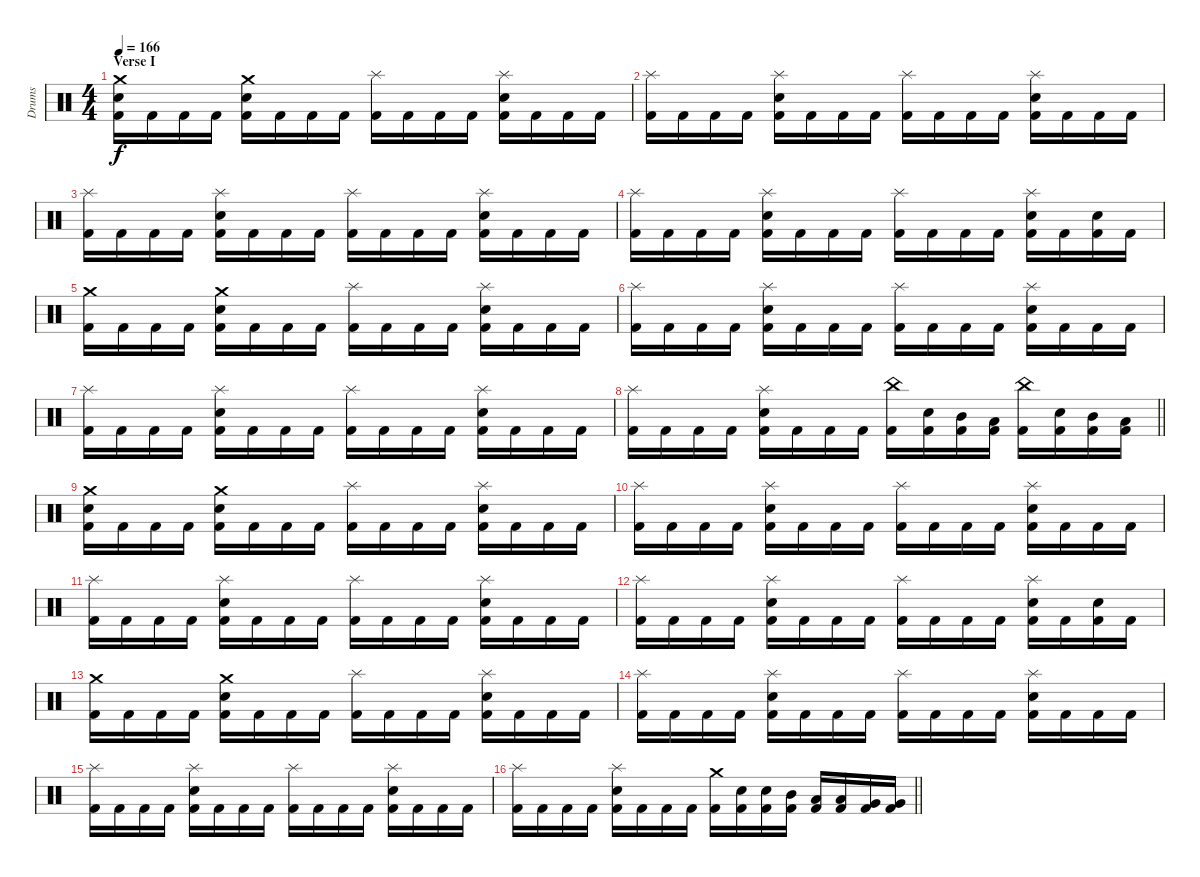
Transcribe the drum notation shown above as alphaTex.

\track ("Drums" "Drums") {instrument percussion}
\staff {score}
\articulation defaults
\ts (4 4)
\section ("" "Verse I")
\tempo 166
\clef neutral
\ks c
("Kick (hit) 2" "Snare (hit) 2" "Crash medium (hit)").16{dy f} "Kick (hit) 2".16 "Kick (hit) 2".16 "Kick (hit) 2".16 ("Kick (hit) 2" "Snare (hit) 2" "Crash medium (hit)").16 "Kick (hit) 2".16 "Kick (hit) 2".16 "Kick (hit) 2".16 ("Kick (hit) 2" "Splash (hit)").16 "Kick (hit) 2".16 "Kick (hit) 2".16 "Kick (hit) 2".16 ("Kick (hit) 2" "Snare (hit) 2" "Splash (hit)").16 "Kick (hit) 2".16 "Kick (hit) 2".16 "Kick (hit) 2".16 |
("Kick (hit) 2" "Splash (hit)").16 "Kick (hit) 2".16 "Kick (hit) 2".16 "Kick (hit) 2".16 ("Kick (hit) 2" "Snare (hit) 2" "Splash (hit)").16 "Kick (hit) 2".16 "Kick (hit) 2".16 "Kick (hit) 2".16 ("Kick (hit) 2" "Splash (hit)").16 "Kick (hit) 2".16 "Kick (hit) 2".16 "Kick (hit) 2".16 ("Kick (hit) 2" "Snare (hit) 2" "Splash (hit)").16 "Kick (hit) 2".16 "Kick (hit) 2".16 "Kick (hit) 2".16 |
("Kick (hit) 2" "Splash (hit)").16 "Kick (hit) 2".16 "Kick (hit) 2".16 "Kick (hit) 2".16 ("Kick (hit) 2" "Snare (hit) 2" "Splash (hit)").16 "Kick (hit) 2".16 "Kick (hit) 2".16 "Kick (hit) 2".16 ("Kick (hit) 2" "Splash (hit)").16 "Kick (hit) 2".16 "Kick (hit) 2".16 "Kick (hit) 2".16 ("Kick (hit) 2" "Snare (hit) 2" "Splash (hit)").16 "Kick (hit) 2".16 "Kick (hit) 2".16 "Kick (hit) 2".16 |
("Kick (hit) 2" "Splash (hit)").16 "Kick (hit) 2".16 "Kick (hit) 2".16 "Kick (hit) 2".16 ("Kick (hit) 2" "Snare (hit) 2" "Splash (hit)").16 "Kick (hit) 2".16 "Kick (hit) 2".16 "Kick (hit) 2".16 ("Kick (hit) 2" "Splash (hit)").16 "Kick (hit) 2".16 "Kick (hit) 2".16 "Kick (hit) 2".16 ("Kick (hit) 2" "Snare (hit) 2" "Splash (hit)").16 "Kick (hit) 2".16 ("Kick (hit) 2" "Snare (hit) 2").16 "Kick (hit) 2".16 |
("Kick (hit) 2" "Crash medium (hit)").16 "Kick (hit) 2".16 "Kick (hit) 2".16 "Kick (hit) 2".16 ("Kick (hit) 2" "Snare (hit) 2" "Crash medium (hit)").16 "Kick (hit) 2".16 "Kick (hit) 2".16 "Kick (hit) 2".16 ("Kick (hit) 2" "Splash (hit)").16 "Kick (hit) 2".16 "Kick (hit) 2".16 "Kick (hit) 2".16 ("Kick (hit) 2" "Snare (hit) 2" "Splash (hit)").16 "Kick (hit) 2".16 "Kick (hit) 2".16 "Kick (hit) 2".16 |
("Kick (hit) 2" "Splash (hit)").16 "Kick (hit) 2".16 "Kick (hit) 2".16 "Kick (hit) 2".16 ("Kick (hit) 2" "Snare (hit) 2" "Splash (hit)").16 "Kick (hit) 2".16 "Kick (hit) 2".16 "Kick (hit) 2".16 ("Kick (hit) 2" "Splash (hit)").16 "Kick (hit) 2".16 "Kick (hit) 2".16 "Kick (hit) 2".16 ("Kick (hit) 2" "Snare (hit) 2" "Splash (hit)").16 "Kick (hit) 2".16 "Kick (hit) 2".16 "Kick (hit) 2".16 |
("Kick (hit) 2" "Splash (hit)").16 "Kick (hit) 2".16 "Kick (hit) 2".16 "Kick (hit) 2".16 ("Kick (hit) 2" "Snare (hit) 2" "Splash (hit)").16 "Kick (hit) 2".16 "Kick (hit) 2".16 "Kick (hit) 2".16 ("Kick (hit) 2" "Splash (hit)").16 "Kick (hit) 2".16 "Kick (hit) 2".16 "Kick (hit) 2".16 ("Kick (hit) 2" "Snare (hit) 2" "Splash (hit)").16 "Kick (hit) 2".16 "Kick (hit) 2".16 "Kick (hit) 2".16 |
\barLineRight lightlight
("Kick (hit) 2" "Splash (hit)").16 "Kick (hit) 2".16 "Kick (hit) 2".16 "Kick (hit) 2".16 ("Kick (hit) 2" "Snare (hit) 2" "Splash (hit)").16 "Kick (hit) 2".16 "Kick (hit) 2".16 "Kick (hit) 2".16 ("Kick (hit) 2" "China (hit)").16 ("Kick (hit) 2" "Snare (hit) 2").16 ("Kick (hit) 2" "Mid Tom (hit)").16 ("Kick (hit) 2" "Low Tom (hit)").16 ("Kick (hit) 2" "China (hit)").16 ("Kick (hit) 2" "Snare (hit) 2").16 ("Kick (hit) 2" "Mid Tom (hit)").16 ("Kick (hit) 2" "Low Tom (hit)").16 |
\section ("" "")
("Kick (hit) 2" "Snare (hit) 2" "Crash medium (hit)").16 "Kick (hit) 2".16 "Kick (hit) 2".16 "Kick (hit) 2".16 ("Kick (hit) 2" "Snare (hit) 2" "Crash medium (hit)").16 "Kick (hit) 2".16 "Kick (hit) 2".16 "Kick (hit) 2".16 ("Kick (hit) 2" "Splash (hit)").16 "Kick (hit) 2".16 "Kick (hit) 2".16 "Kick (hit) 2".16 ("Kick (hit) 2" "Snare (hit) 2" "Splash (hit)").16 "Kick (hit) 2".16 "Kick (hit) 2".16 "Kick (hit) 2".16 |
("Kick (hit) 2" "Splash (hit)").16 "Kick (hit) 2".16 "Kick (hit) 2".16 "Kick (hit) 2".16 ("Kick (hit) 2" "Snare (hit) 2" "Splash (hit)").16 "Kick (hit) 2".16 "Kick (hit) 2".16 "Kick (hit) 2".16 ("Kick (hit) 2" "Splash (hit)").16 "Kick (hit) 2".16 "Kick (hit) 2".16 "Kick (hit) 2".16 ("Kick (hit) 2" "Snare (hit) 2" "Splash (hit)").16 "Kick (hit) 2".16 "Kick (hit) 2".16 "Kick (hit) 2".16 |
("Kick (hit) 2" "Splash (hit)").16 "Kick (hit) 2".16 "Kick (hit) 2".16 "Kick (hit) 2".16 ("Kick (hit) 2" "Snare (hit) 2" "Splash (hit)").16 "Kick (hit) 2".16 "Kick (hit) 2".16 "Kick (hit) 2".16 ("Kick (hit) 2" "Splash (hit)").16 "Kick (hit) 2".16 "Kick (hit) 2".16 "Kick (hit) 2".16 ("Kick (hit) 2" "Snare (hit) 2" "Splash (hit)").16 "Kick (hit) 2".16 "Kick (hit) 2".16 "Kick (hit) 2".16 |
("Kick (hit) 2" "Splash (hit)").16 "Kick (hit) 2".16 "Kick (hit) 2".16 "Kick (hit) 2".16 ("Kick (hit) 2" "Snare (hit) 2" "Splash (hit)").16 "Kick (hit) 2".16 "Kick (hit) 2".16 "Kick (hit) 2".16 ("Kick (hit) 2" "Splash (hit)").16 "Kick (hit) 2".16 "Kick (hit) 2".16 "Kick (hit) 2".16 ("Kick (hit) 2" "Snare (hit) 2" "Splash (hit)").16 "Kick (hit) 2".16 ("Kick (hit) 2" "Snare (hit) 2").16 "Kick (hit) 2".16 |
("Kick (hit) 2" "Crash medium (hit)").16 "Kick (hit) 2".16 "Kick (hit) 2".16 "Kick (hit) 2".16 ("Kick (hit) 2" "Snare (hit) 2" "Crash medium (hit)").16 "Kick (hit) 2".16 "Kick (hit) 2".16 "Kick (hit) 2".16 ("Kick (hit) 2" "Splash (hit)").16 "Kick (hit) 2".16 "Kick (hit) 2".16 "Kick (hit) 2".16 ("Kick (hit) 2" "Snare (hit) 2" "Splash (hit)").16 "Kick (hit) 2".16 "Kick (hit) 2".16 "Kick (hit) 2".16 |
("Kick (hit) 2" "Splash (hit)").16 "Kick (hit) 2".16 "Kick (hit) 2".16 "Kick (hit) 2".16 ("Kick (hit) 2" "Snare (hit) 2" "Splash (hit)").16 "Kick (hit) 2".16 "Kick (hit) 2".16 "Kick (hit) 2".16 ("Kick (hit) 2" "Splash (hit)").16 "Kick (hit) 2".16 "Kick (hit) 2".16 "Kick (hit) 2".16 ("Kick (hit) 2" "Snare (hit) 2" "Splash (hit)").16 "Kick (hit) 2".16 "Kick (hit) 2".16 "Kick (hit) 2".16 |
("Kick (hit) 2" "Splash (hit)").16 "Kick (hit) 2".16 "Kick (hit) 2".16 "Kick (hit) 2".16 ("Kick (hit) 2" "Snare (hit) 2" "Splash (hit)").16 "Kick (hit) 2".16 "Kick (hit) 2".16 "Kick (hit) 2".16 ("Kick (hit) 2" "Splash (hit)").16 "Kick (hit) 2".16 "Kick (hit) 2".16 "Kick (hit) 2".16 ("Kick (hit) 2" "Snare (hit) 2" "Splash (hit)").16 "Kick (hit) 2".16 "Kick (hit) 2".16 "Kick (hit) 2".16 |
\barLineRight lightlight
("Kick (hit) 2" "Splash (hit)").16 "Kick (hit) 2".16 "Kick (hit) 2".16 "Kick (hit) 2".16 ("Kick (hit) 2" "Snare (hit) 2" "Splash (hit)").16 "Kick (hit) 2".16 "Kick (hit) 2".16 "Kick (hit) 2".16 ("Kick (hit) 2" "Crash medium (hit)").16 ("Kick (hit) 2" "Snare (hit) 2").16 ("Kick (hit) 2" "Snare (hit) 2").16 ("Kick (hit) 2" "Mid Tom (hit)").16 ("Kick (hit) 2" "Low Tom (hit)").16 ("Kick (hit) 2" "Low Tom (hit)").16 ("Kick (hit) 2" "Very Low Tom (hit)").16 ("Kick (hit) 2" "Very Low Tom (hit)").16
